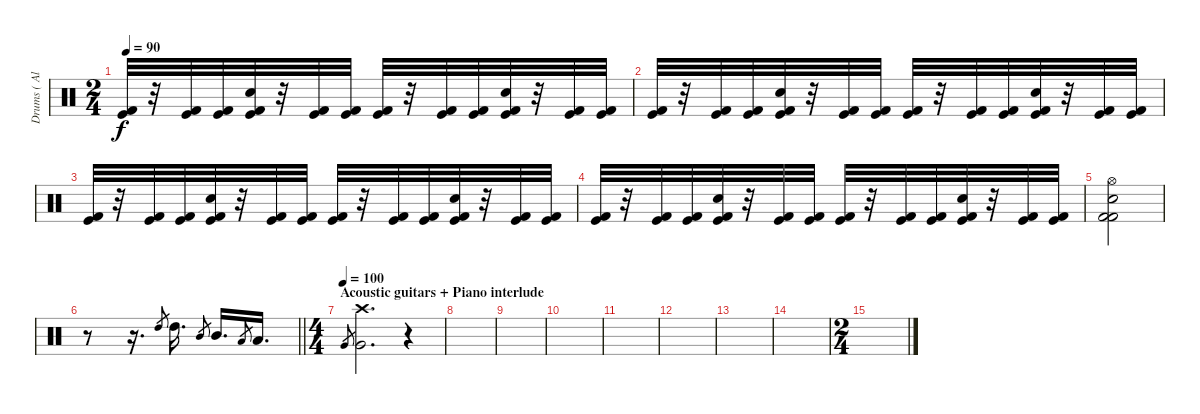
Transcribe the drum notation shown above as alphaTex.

\track ("Drums ( Alex Holzwarth)" "Drums ( Al") {instrument percussion}
\staff {score}
\articulation defaults
\ts (2 4)
\tempo 90
\clef neutral
\ks c
("Kick (hit) 2" "Kick (hit)").32{dy f} r.32 ("Kick (hit) 2" "Kick (hit)").32 ("Kick (hit) 2" "Kick (hit)").32 ("Snare (hit) 2" "Kick (hit) 2" "Kick (hit)").32 r.32 ("Kick (hit) 2" "Kick (hit)").32 ("Kick (hit) 2" "Kick (hit)").32 ("Kick (hit) 2" "Kick (hit)").32 r.32 ("Kick (hit) 2" "Kick (hit)").32 ("Kick (hit) 2" "Kick (hit)").32 ("Snare (hit) 2" "Kick (hit) 2" "Kick (hit)").32 r.32 ("Kick (hit) 2" "Kick (hit)").32 ("Kick (hit) 2" "Kick (hit)").32 |
("Kick (hit) 2" "Kick (hit)").32 r.32 ("Kick (hit) 2" "Kick (hit)").32 ("Kick (hit) 2" "Kick (hit)").32 ("Snare (hit) 2" "Kick (hit) 2" "Kick (hit)").32 r.32 ("Kick (hit) 2" "Kick (hit)").32 ("Kick (hit) 2" "Kick (hit)").32 ("Kick (hit) 2" "Kick (hit)").32 r.32 ("Kick (hit) 2" "Kick (hit)").32 ("Kick (hit) 2" "Kick (hit)").32 ("Snare (hit) 2" "Kick (hit) 2" "Kick (hit)").32 r.32 ("Kick (hit) 2" "Kick (hit)").32 ("Kick (hit) 2" "Kick (hit)").32 |
("Kick (hit) 2" "Kick (hit)").32 r.32 ("Kick (hit) 2" "Kick (hit)").32 ("Kick (hit) 2" "Kick (hit)").32 ("Snare (hit) 2" "Kick (hit) 2" "Kick (hit)").32 r.32 ("Kick (hit) 2" "Kick (hit)").32 ("Kick (hit) 2" "Kick (hit)").32 ("Kick (hit) 2" "Kick (hit)").32 r.32 ("Kick (hit) 2" "Kick (hit)").32 ("Kick (hit) 2" "Kick (hit)").32 ("Snare (hit) 2" "Kick (hit) 2" "Kick (hit)").32 r.32 ("Kick (hit) 2" "Kick (hit)").32 ("Kick (hit) 2" "Kick (hit)").32 |
("Kick (hit) 2" "Kick (hit)").32 r.32 ("Kick (hit) 2" "Kick (hit)").32 ("Kick (hit) 2" "Kick (hit)").32 ("Snare (hit) 2" "Kick (hit) 2" "Kick (hit)").32 r.32 ("Kick (hit) 2" "Kick (hit)").32 ("Kick (hit) 2" "Kick (hit)").32 ("Kick (hit) 2" "Kick (hit)").32 r.32 ("Kick (hit) 2" "Kick (hit)").32 ("Kick (hit) 2" "Kick (hit)").32 ("Snare (hit) 2" "Kick (hit) 2" "Kick (hit)").32 r.32 ("Kick (hit) 2" "Kick (hit)").32 ("Kick (hit) 2" "Kick (hit)").32 |
("Hi-Hat (open)" "Snare (hit) 2" "Kick (hit) 2" "Kick (hit) 2").2 |
\barLineRight lightlight
r.8 r.16{d} "High Tom (hit)".8{gr} "High Tom (hit)".16{d} "Mid Tom (hit)".8{gr} "Mid Tom (hit)".16{d} "Low Tom (hit)".8{gr} "Low Tom (hit)".16{d} |
\ts (4 4)
\section ("" "Acoustic guitars + Piano interlude")
\tempo (100)
"Very Low Tom (hit)".8{gr} ("Crash high (hit)" "Very Low Tom (hit)").2{d} r.4 |
|
|
|
|
|
|
|
\ts (2 4)
